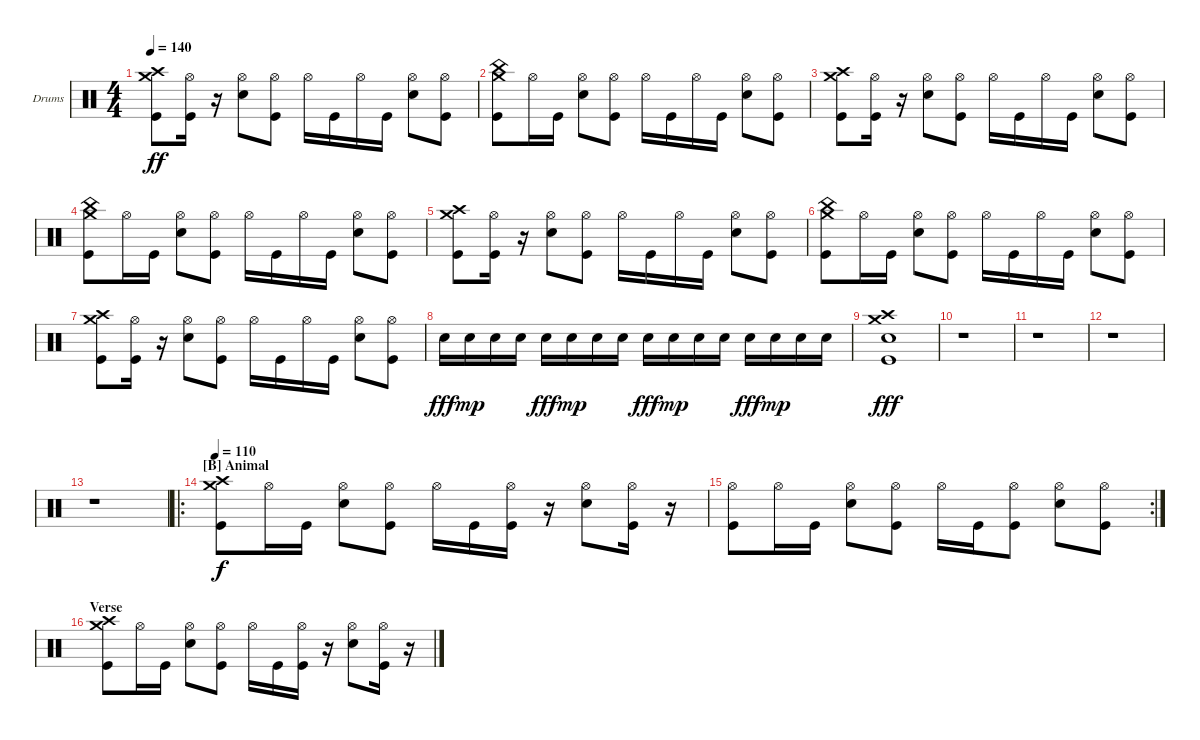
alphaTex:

\defaultSystemsLayout 4
\bracketExtendMode nobrackets
\firstSystemTrackNameOrientation horizontal
\otherSystemsTrackNameOrientation horizontal
\track ("Dave Abbruzzese" "Drums") {solo instrument percussion}
\staff {score}
\articulation defaults
\ts (4 4)
\tempo 140
\clef neutral
\ks c
("Crash high (hit)" "Kick (hit)" "Crash medium (hit)").8{dy ff} ("Kick (hit)" "Hi-Hat (open)").16 r.16 ("Snare (hit) 2" "Hi-Hat (open)").8 ("Kick (hit)" "Hi-Hat (open)").8 "Hi-Hat (open)".16 "Kick (hit)".16 "Hi-Hat (open)".16 "Kick (hit)".16 ("Snare (hit) 2" "Hi-Hat (open)").8 ("Kick (hit)" "Hi-Hat (open)").8 |
("Kick (hit)" "Crash medium (hit)" "China (hit)").8 "Hi-Hat (open)".16 "Kick (hit)".16 ("Snare (hit) 2" "Hi-Hat (open)").8 ("Kick (hit)" "Hi-Hat (open)").8 "Hi-Hat (open)".16 "Kick (hit)".16 "Hi-Hat (open)".16 "Kick (hit)".16 ("Snare (hit) 2" "Hi-Hat (open)").8 ("Kick (hit)" "Hi-Hat (open)").8 |
("Crash high (hit)" "Kick (hit)" "Crash medium (hit)").8 ("Kick (hit)" "Hi-Hat (open)").16 r.16 ("Snare (hit) 2" "Hi-Hat (open)").8 ("Kick (hit)" "Hi-Hat (open)").8 "Hi-Hat (open)".16 "Kick (hit)".16 "Hi-Hat (open)".16 "Kick (hit)".16 ("Snare (hit) 2" "Hi-Hat (open)").8 ("Kick (hit)" "Hi-Hat (open)").8 |
("Kick (hit)" "Crash medium (hit)" "China (hit)").8 "Hi-Hat (open)".16 "Kick (hit)".16 ("Snare (hit) 2" "Hi-Hat (open)").8 ("Kick (hit)" "Hi-Hat (open)").8 "Hi-Hat (open)".16 "Kick (hit)".16 "Hi-Hat (open)".16 "Kick (hit)".16 ("Snare (hit) 2" "Hi-Hat (open)").8 ("Kick (hit)" "Hi-Hat (open)").8 |
("Crash high (hit)" "Kick (hit)" "Crash medium (hit)").8 ("Kick (hit)" "Hi-Hat (open)").16 r.16 ("Snare (hit) 2" "Hi-Hat (open)").8 ("Kick (hit)" "Hi-Hat (open)").8 "Hi-Hat (open)".16 "Kick (hit)".16 "Hi-Hat (open)".16 "Kick (hit)".16 ("Snare (hit) 2" "Hi-Hat (open)").8 ("Kick (hit)" "Hi-Hat (open)").8 |
("Kick (hit)" "Crash medium (hit)" "China (hit)").8 "Hi-Hat (open)".16 "Kick (hit)".16 ("Snare (hit) 2" "Hi-Hat (open)").8 ("Kick (hit)" "Hi-Hat (open)").8 "Hi-Hat (open)".16 "Kick (hit)".16 "Hi-Hat (open)".16 "Kick (hit)".16 ("Snare (hit) 2" "Hi-Hat (open)").8 ("Kick (hit)" "Hi-Hat (open)").8 |
("Crash high (hit)" "Kick (hit)" "Crash medium (hit)").8 ("Kick (hit)" "Hi-Hat (open)").16 r.16 ("Snare (hit) 2" "Hi-Hat (open)").8 ("Kick (hit)" "Hi-Hat (open)").8 "Hi-Hat (open)".16 "Kick (hit)".16 "Hi-Hat (open)".16 "Kick (hit)".16 ("Snare (hit) 2" "Hi-Hat (open)").8 ("Kick (hit)" "Hi-Hat (open)").8 |
"Snare (hit) 2".16{dy fff} "Snare (hit) 2".16{dy mp} "Snare (hit) 2".16 "Snare (hit) 2".16 "Snare (hit) 2".16{dy fff} "Snare (hit) 2".16{dy mp} "Snare (hit) 2".16 "Snare (hit) 2".16 "Snare (hit) 2".16{dy fff} "Snare (hit) 2".16{dy mp} "Snare (hit) 2".16 "Snare (hit) 2".16 "Snare (hit) 2".16{dy fff} "Snare (hit) 2".16{dy mp} "Snare (hit) 2".16 "Snare (hit) 2".16 |
("Kick (hit)" "Snare (hit) 2" "Crash medium (hit)" "Crash high (hit)").1{dy fff} |
r.1 |
r.1 |
r.1 |
r.1 |
\ro
\section ("B" "Animal")
\tempo 110
("Crash high (hit)" "Kick (hit)" "Crash medium (hit)").8{dy f} "Hi-Hat (open)".16 "Kick (hit)".16 ("Snare (hit) 2" "Hi-Hat (open)").8 ("Kick (hit)" "Hi-Hat (open)").8 "Hi-Hat (open)".16 "Kick (hit)".16 ("Kick (hit)" "Hi-Hat (open)").16 r.16 ("Snare (hit) 2" "Hi-Hat (open)").8 ("Kick (hit)" "Hi-Hat (open)").16 r.16 |
\rc 2
("Kick (hit)" "Hi-Hat (open)").8 "Hi-Hat (open)".16 "Kick (hit)".16 ("Snare (hit) 2" "Hi-Hat (open)").8 ("Kick (hit)" "Hi-Hat (open)").8 "Hi-Hat (open)".16 "Kick (hit)".16 ("Kick (hit)" "Hi-Hat (open)").8 ("Snare (hit) 2" "Hi-Hat (open)").8 ("Kick (hit)" "Hi-Hat (open)").8 |
\section ("" "Verse")
("Crash high (hit)" "Kick (hit)" "Crash medium (hit)").8 "Hi-Hat (open)".16 "Kick (hit)".16 ("Snare (hit) 2" "Hi-Hat (open)").8 ("Kick (hit)" "Hi-Hat (open)").8 "Hi-Hat (open)".16 "Kick (hit)".16 ("Kick (hit)" "Hi-Hat (open)").16 r.16 ("Snare (hit) 2" "Hi-Hat (open)").8 ("Kick (hit)" "Hi-Hat (open)").16 r.16
